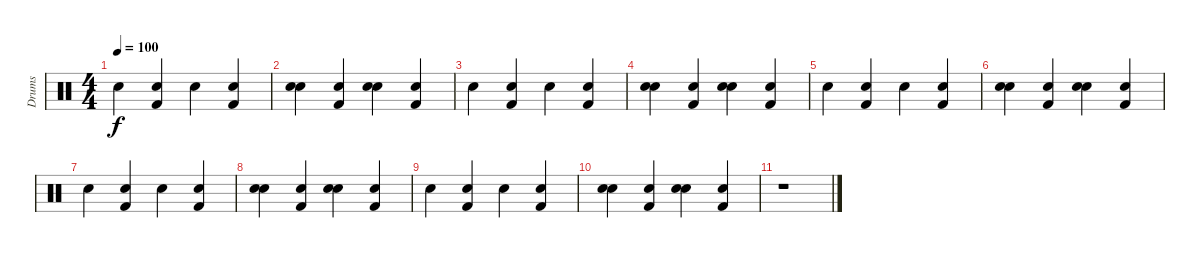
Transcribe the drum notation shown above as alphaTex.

\track ("Drums" "Drums") {instrument percussion}
\staff {score}
\articulation defaults
\ts (4 4)
\tempo 100
\clef neutral
\ks c "Snare (hit) 2".4{dy f volume 4}
("Snare (hit)" "Kick (hit) 2").4 "Snare (hit) 2".4 ("Snare (hit)" "Kick (hit) 2").4 |
("Snare (hit)" "Snare (hit) 2").4 ("Snare (hit)" "Kick (hit) 2").4 ("Snare (hit)" "Snare (hit) 2").4{volume 3} ("Snare (hit)" "Kick (hit) 2").4{volume 3} |
"Snare (hit) 2".4{volume 3} ("Snare (hit)" "Kick (hit) 2").4 "Snare (hit) 2".4 ("Snare (hit)" "Kick (hit) 2").4 |
("Snare (hit)" "Snare (hit) 2").4 ("Snare (hit)" "Kick (hit) 2").4 ("Snare (hit)" "Snare (hit) 2").4{volume 3} ("Snare (hit)" "Kick (hit) 2").4{volume 2} |
"Snare (hit) 2".4{volume 2} ("Snare (hit)" "Kick (hit) 2").4{volume 2} "Snare (hit) 2".4{volume 2} ("Snare (hit)" "Kick (hit) 2").4 |
("Snare (hit)" "Snare (hit) 2").4 ("Snare (hit)" "Kick (hit) 2").4 ("Snare (hit)" "Snare (hit) 2").4 ("Snare (hit)" "Kick (hit) 2").4 |
"Snare (hit) 2".4{volume 1} ("Snare (hit)" "Kick (hit) 2").4{volume 0} "Snare (hit) 2".4{volume 0} ("Snare (hit)" "Kick (hit) 2").4 |
("Snare (hit)" "Snare (hit) 2").4 ("Snare (hit)" "Kick (hit) 2").4 ("Snare (hit)" "Snare (hit) 2").4 ("Snare (hit)" "Kick (hit) 2").4 |
"Snare (hit) 2".4 ("Snare (hit)" "Kick (hit) 2").4 "Snare (hit) 2".4 ("Snare (hit)" "Kick (hit) 2").4 |
("Snare (hit)" "Snare (hit) 2").4 ("Snare (hit)" "Kick (hit) 2").4 ("Snare (hit)" "Snare (hit) 2").4 ("Snare (hit)" "Kick (hit) 2").4 |
r.1
